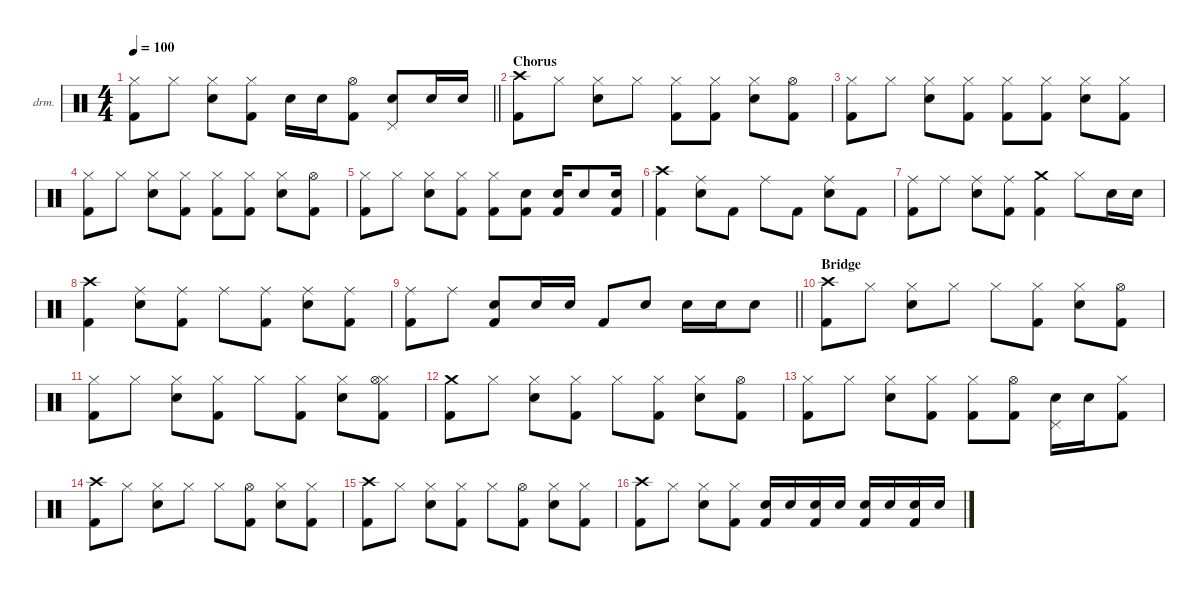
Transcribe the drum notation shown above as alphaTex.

\defaultSystemsLayout 4
\hideDynamics
\bracketExtendMode nobrackets
\firstSystemTrackNameOrientation horizontal
\otherSystemsTrackNameOrientation horizontal
\track ("Drums" "drm.") {instrument percussion}
\staff {score}
\articulation defaults
\ts (4 4)
\tempo 100
\clef neutral
\barLineRight lightlight
\ks c
("Kick (hit) 2" "Hi-Hat (closed)").8{dy f} "Hi-Hat (closed)".8 ("Snare (hit) 2" "Hi-Hat (closed)").8 ("Kick (hit) 2" "Hi-Hat (closed)").8 "Snare (hit) 2".16 "Snare (hit) 2".16 ("Kick (hit) 2" "Hi-Hat (open)").8 ("Snare (hit) 2" "Pedal Hi-Hat (hit)").8 "Snare (hit) 2".16 "Snare (hit) 2".16 |
\section ("" "Chorus")
("Kick (hit) 2" "Crash high (hit)").8 "Hi-Hat (closed)".8 ("Snare (hit) 2" "Hi-Hat (closed)").8 "Hi-Hat (closed)".8 ("Kick (hit) 2" "Hi-Hat (closed)").8 ("Kick (hit) 2" "Hi-Hat (closed)").8 ("Snare (hit) 2" "Hi-Hat (closed)").8 ("Kick (hit) 2" "Hi-Hat (open)").8 |
("Kick (hit) 2" "Hi-Hat (closed)").8 "Hi-Hat (closed)".8 ("Snare (hit) 2" "Hi-Hat (closed)").8 ("Kick (hit) 2" "Hi-Hat (closed)").8 ("Kick (hit) 2" "Hi-Hat (closed)").8 ("Kick (hit) 2" "Hi-Hat (closed)").8 ("Snare (hit) 2" "Hi-Hat (closed)").8 ("Kick (hit) 2" "Hi-Hat (closed)").8 |
("Kick (hit) 2" "Hi-Hat (closed)").8 "Hi-Hat (closed)".8 ("Snare (hit) 2" "Hi-Hat (closed)").8 ("Kick (hit) 2" "Hi-Hat (closed)").8 ("Kick (hit) 2" "Hi-Hat (closed)").8 ("Kick (hit) 2" "Hi-Hat (closed)").8 ("Snare (hit) 2" "Hi-Hat (closed)").8 ("Kick (hit) 2" "Hi-Hat (open)").8 |
("Kick (hit) 2" "Hi-Hat (closed)").8 "Hi-Hat (closed)".8 ("Snare (hit) 2" "Hi-Hat (closed)").8 ("Kick (hit) 2" "Hi-Hat (closed)").8 ("Kick (hit) 2" "Hi-Hat (closed)").8 ("Kick (hit) 2" "Snare (hit) 2").8 ("Kick (hit) 2" "Snare (hit) 2").16 "Snare (hit) 2".8 ("Kick (hit) 2" "Snare (hit) 2").16 |
("Kick (hit) 2" "Crash high (hit)").4 ("Snare (hit) 2" "Ride (middle)").8 "Kick (hit) 2".8 "Ride (middle)".8 "Kick (hit) 2".8 ("Snare (hit) 2" "Ride (middle)").8 "Kick (hit) 2".8 |
("Kick (hit) 2" "Ride (middle)").8 "Ride (middle)".8 ("Snare (hit) 2" "Ride (middle)").8 ("Kick (hit) 2" "Ride (middle)").8 ("Kick (hit) 2" "Crash medium (hit)").4 "Hi-Hat (closed)".8 "Snare (hit) 2".16 "Snare (hit) 2".16 |
("Kick (hit) 2" "Crash high (hit)").4 ("Snare (hit) 2" "Ride (middle)").8 ("Kick (hit) 2" "Ride (middle)").8 "Ride (middle)".8 ("Kick (hit) 2" "Ride (middle)").8 ("Snare (hit) 2" "Ride (middle)").8 ("Kick (hit) 2" "Ride (middle)").8 |
\barLineRight lightlight
("Kick (hit) 2" "Ride (middle)").8 "Ride (middle)".8 ("Kick (hit) 2" "Snare (hit) 2").8 "Snare (hit) 2".16 "Snare (hit) 2".16 "Kick (hit) 2".8 "Snare (hit) 2".8 "Snare (hit) 2".16 "Snare (hit) 2".16 "Snare (hit) 2".8 |
\section ("" "Bridge")
("Kick (hit) 2" "Crash high (hit)").8 "Hi-Hat (closed)".8 ("Snare (hit) 2" "Hi-Hat (closed)").8 "Hi-Hat (closed)".8 "Hi-Hat (closed)".8 ("Kick (hit) 2" "Hi-Hat (closed)").8 ("Snare (hit) 2" "Hi-Hat (closed)").8 ("Kick (hit) 2" "Hi-Hat (open)").8 |
("Kick (hit) 2" "Hi-Hat (closed)").8 "Hi-Hat (closed)".8 ("Snare (hit) 2" "Hi-Hat (closed)").8 ("Kick (hit) 2" "Hi-Hat (closed)").8 "Hi-Hat (closed)".8 ("Kick (hit) 2" "Hi-Hat (closed)").8 ("Snare (hit) 2" "Hi-Hat (closed)").8 ("Kick (hit) 2" "Hi-Hat (closed)" "Hi-Hat (open)").8 |
("Kick (hit) 2" "Crash medium (hit)").8 "Hi-Hat (closed)".8 ("Snare (hit) 2" "Hi-Hat (closed)").8 ("Kick (hit) 2" "Hi-Hat (closed)").8 "Hi-Hat (closed)".8 ("Kick (hit) 2" "Hi-Hat (closed)").8 ("Snare (hit) 2" "Hi-Hat (closed)").8 ("Kick (hit) 2" "Hi-Hat (open)").8 |
("Kick (hit) 2" "Hi-Hat (closed)").8 "Hi-Hat (closed)".8 ("Snare (hit) 2" "Hi-Hat (closed)").8 ("Kick (hit) 2" "Hi-Hat (closed)").8 ("Kick (hit) 2" "Hi-Hat (closed)").8 ("Kick (hit) 2" "Hi-Hat (open)").8 ("Snare (hit) 2" "Pedal Hi-Hat (hit)").16 "Snare (hit) 2".16 ("Kick (hit) 2" "Hi-Hat (closed)").8 |
("Kick (hit) 2" "Crash high (hit)").8 "Hi-Hat (closed)".8 ("Snare (hit) 2" "Hi-Hat (closed)").8 "Hi-Hat (closed)".8 "Hi-Hat (closed)".8 ("Kick (hit) 2" "Hi-Hat (open)").8 ("Snare (hit) 2" "Hi-Hat (closed)").8 ("Kick (hit) 2" "Hi-Hat (closed)").8 |
("Kick (hit) 2" "Crash high (hit)").8 "Hi-Hat (closed)".8 ("Snare (hit) 2" "Hi-Hat (closed)").8 ("Kick (hit) 2" "Hi-Hat (closed)").8 "Hi-Hat (closed)".8 ("Kick (hit) 2" "Hi-Hat (open)").8 ("Snare (hit) 2" "Hi-Hat (closed)").8 ("Kick (hit) 2" "Hi-Hat (closed)").8 |
("Kick (hit) 2" "Crash high (hit)").8 "Hi-Hat (closed)".8 ("Snare (hit) 2" "Hi-Hat (closed)").8 ("Kick (hit) 2" "Hi-Hat (closed)").8 ("Kick (hit) 2" "Snare (hit) 2").16 "Snare (hit) 2".16 ("Kick (hit) 2" "Snare (hit) 2").16 "Snare (hit) 2".16 ("Kick (hit) 2" "Snare (hit) 2").16 "Snare (hit) 2".16 ("Kick (hit) 2" "Snare (hit) 2").16 "Snare (hit) 2".16
